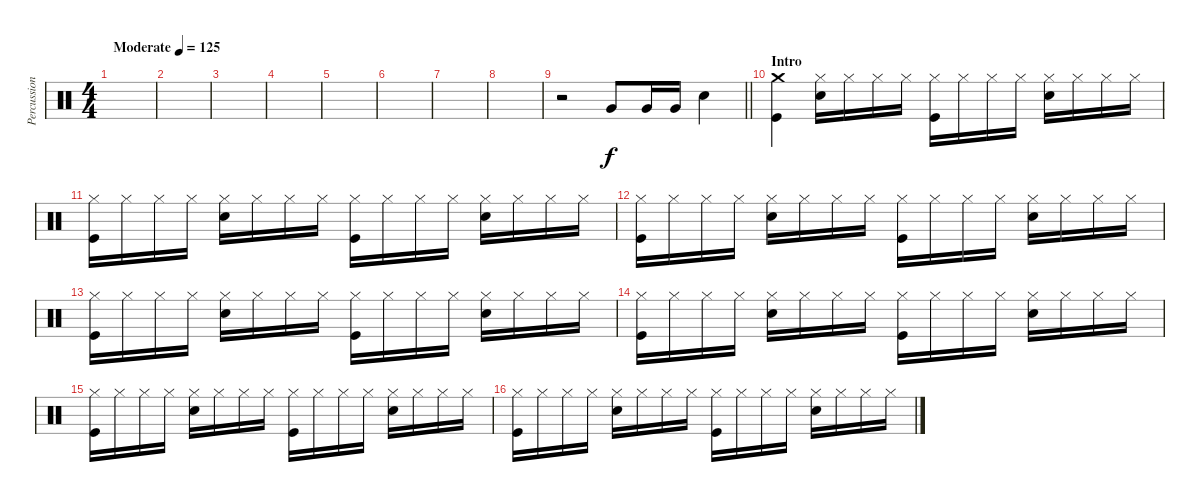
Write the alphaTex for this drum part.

\track ("Percussion" "Percussion") {instrument percussion}
\staff {score}
\articulation defaults
\ts (4 4)
\tempo (125 "Moderate")
\clef neutral
\ks c
|
|
|
|
|
|
|
|
\barLineRight lightlight
r.2 "Very Low Tom (hit)".8 "Very Low Tom (hit)".16 "Very Low Tom (hit)".16 "Snare (hit) 2".4 |
\section ("" "Intro")
("Kick (hit)" "Crash medium (hit)").4 ("Hi-Hat (closed)" "Snare (hit) 2").16 "Hi-Hat (closed)".16 "Hi-Hat (closed)".16 "Hi-Hat (closed)".16 ("Kick (hit)" "Hi-Hat (closed)").16 "Hi-Hat (closed)".16 "Hi-Hat (closed)".16 "Hi-Hat (closed)".16 ("Hi-Hat (closed)" "Snare (hit) 2").16 "Hi-Hat (closed)".16 "Hi-Hat (closed)".16 "Hi-Hat (closed)".16 |
("Kick (hit)" "Hi-Hat (closed)").16 "Hi-Hat (closed)".16 "Hi-Hat (closed)".16 "Hi-Hat (closed)".16 ("Hi-Hat (closed)" "Snare (hit) 2").16 "Hi-Hat (closed)".16 "Hi-Hat (closed)".16 "Hi-Hat (closed)".16 ("Kick (hit)" "Hi-Hat (closed)").16 "Hi-Hat (closed)".16 "Hi-Hat (closed)".16 "Hi-Hat (closed)".16 ("Hi-Hat (closed)" "Snare (hit) 2").16 "Hi-Hat (closed)".16 "Hi-Hat (closed)".16 "Hi-Hat (closed)".16 |
("Kick (hit)" "Hi-Hat (closed)").16 "Hi-Hat (closed)".16 "Hi-Hat (closed)".16 "Hi-Hat (closed)".16 ("Hi-Hat (closed)" "Snare (hit) 2").16 "Hi-Hat (closed)".16 "Hi-Hat (closed)".16 "Hi-Hat (closed)".16 ("Kick (hit)" "Hi-Hat (closed)").16 "Hi-Hat (closed)".16 "Hi-Hat (closed)".16 "Hi-Hat (closed)".16 ("Hi-Hat (closed)" "Snare (hit) 2").16 "Hi-Hat (closed)".16 "Hi-Hat (closed)".16 "Hi-Hat (closed)".16 |
("Kick (hit)" "Hi-Hat (closed)").16 "Hi-Hat (closed)".16 "Hi-Hat (closed)".16 "Hi-Hat (closed)".16 ("Hi-Hat (closed)" "Snare (hit) 2").16 "Hi-Hat (closed)".16 "Hi-Hat (closed)".16 "Hi-Hat (closed)".16 ("Kick (hit)" "Hi-Hat (closed)").16 "Hi-Hat (closed)".16 "Hi-Hat (closed)".16 "Hi-Hat (closed)".16 ("Hi-Hat (closed)" "Snare (hit) 2").16 "Hi-Hat (closed)".16 "Hi-Hat (closed)".16 "Hi-Hat (closed)".16 |
("Kick (hit)" "Hi-Hat (closed)").16 "Hi-Hat (closed)".16 "Hi-Hat (closed)".16 "Hi-Hat (closed)".16 ("Hi-Hat (closed)" "Snare (hit) 2").16 "Hi-Hat (closed)".16 "Hi-Hat (closed)".16 "Hi-Hat (closed)".16 ("Kick (hit)" "Hi-Hat (closed)").16 "Hi-Hat (closed)".16 "Hi-Hat (closed)".16 "Hi-Hat (closed)".16 ("Hi-Hat (closed)" "Snare (hit) 2").16 "Hi-Hat (closed)".16 "Hi-Hat (closed)".16 "Hi-Hat (closed)".16 |
("Kick (hit)" "Hi-Hat (closed)").16 "Hi-Hat (closed)".16 "Hi-Hat (closed)".16 "Hi-Hat (closed)".16 ("Hi-Hat (closed)" "Snare (hit) 2").16 "Hi-Hat (closed)".16 "Hi-Hat (closed)".16 "Hi-Hat (closed)".16 ("Kick (hit)" "Hi-Hat (closed)").16 "Hi-Hat (closed)".16 "Hi-Hat (closed)".16 "Hi-Hat (closed)".16 ("Hi-Hat (closed)" "Snare (hit) 2").16 "Hi-Hat (closed)".16 "Hi-Hat (closed)".16 "Hi-Hat (closed)".16 |
("Kick (hit)" "Hi-Hat (closed)").16 "Hi-Hat (closed)".16 "Hi-Hat (closed)".16 "Hi-Hat (closed)".16 ("Hi-Hat (closed)" "Snare (hit) 2").16 "Hi-Hat (closed)".16 "Hi-Hat (closed)".16 "Hi-Hat (closed)".16 ("Kick (hit)" "Hi-Hat (closed)").16 "Hi-Hat (closed)".16 "Hi-Hat (closed)".16 "Hi-Hat (closed)".16 ("Hi-Hat (closed)" "Snare (hit) 2").16 "Hi-Hat (closed)".16 "Hi-Hat (closed)".16 "Hi-Hat (closed)".16
